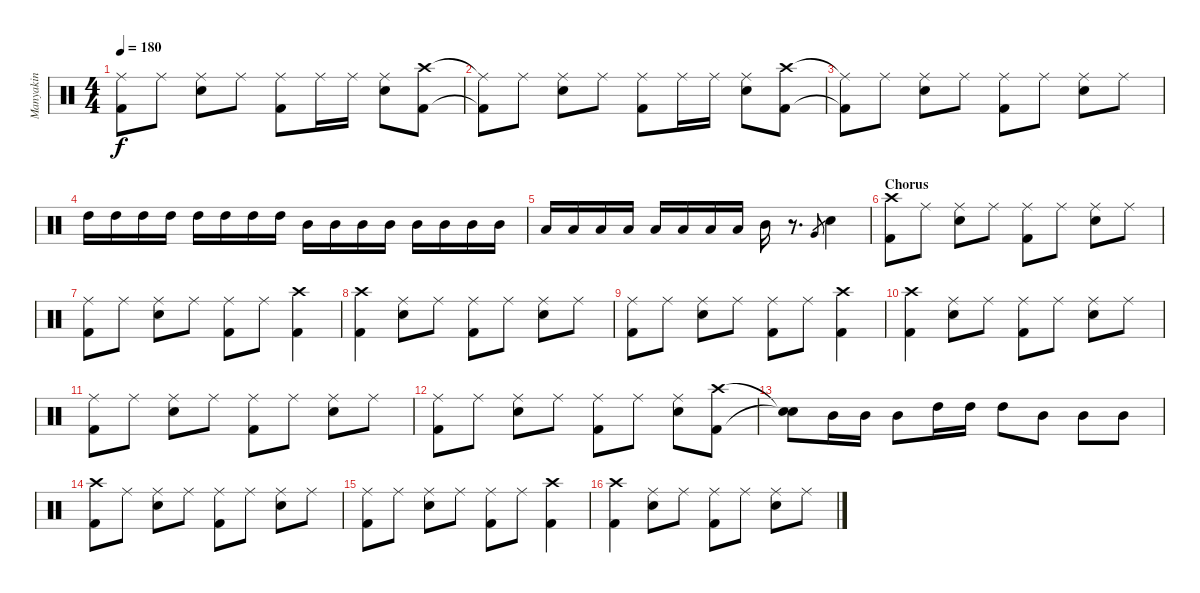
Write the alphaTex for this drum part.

\track ("Manyakin" "Manyakin") {instrument percussion}
\staff {score}
\articulation defaults
\ts (4 4)
\tempo 180
\clef neutral
\ks c
("Kick (hit) 2" "Ride (middle)").8{dy f} "Ride (middle)".8 ("Snare (hit) 2" "Ride (middle)").8 "Ride (middle)".8 ("Kick (hit) 2" "Ride (middle)").8 "Ride (middle)".16 "Ride (middle)".16 ("Snare (hit) 2" "Ride (middle)").8 ("Kick (hit) 2" "Crash high (hit)").8 |
("Kick (hit) 2"{t} "Ride (middle)"{t}).8 "Ride (middle)".8 ("Snare (hit) 2" "Ride (middle)").8 "Ride (middle)".8 ("Kick (hit) 2" "Ride (middle)").8 "Ride (middle)".16 "Ride (middle)".16 ("Snare (hit) 2" "Ride (middle)").8 ("Kick (hit) 2" "Crash high (hit)").8 |
("Kick (hit) 2"{t} "Ride (middle)"{t}).8 "Ride (middle)".8 ("Snare (hit) 2" "Ride (middle)").8 "Ride (middle)".8 ("Kick (hit) 2" "Ride (middle)").8 "Ride (middle)".8 ("Snare (hit) 2" "Ride (middle)").8 "Ride (middle)".8 |
"High Tom (hit)".16 "High Tom (hit)".16 "High Tom (hit)".16 "High Tom (hit)".16 "High Tom (hit)".16 "High Tom (hit)".16 "High Tom (hit)".16 "High Tom (hit)".16 "Mid Tom (hit)".16 "Mid Tom (hit)".16 "Mid Tom (hit)".16 "Mid Tom (hit)".16 "Mid Tom (hit)".16 "Mid Tom (hit)".16 "Mid Tom (hit)".16 "Mid Tom (hit)".16 |
"Low Tom (hit)".16 "Low Tom (hit)".16 "Low Tom (hit)".16 "Low Tom (hit)".16 "Low Tom (hit)".16 "Low Tom (hit)".16 "Low Tom (hit)".16 "Low Tom (hit)".16 "Mid Tom (hit)".16 r.8{d} "Very Low Tom (hit)".8{gr} "Snare (hit) 2".4 |
\section ("" "Chorus")
("Kick (hit) 2" "Crash high (hit)").8 "Ride (middle)".8 ("Snare (hit) 2" "Ride (middle)").8 "Ride (middle)".8 ("Kick (hit) 2" "Ride (middle)").8 "Ride (middle)".8 ("Snare (hit) 2" "Ride (middle)").8 "Ride (middle)".8 |
("Kick (hit) 2" "Ride (middle)").8 "Ride (middle)".8 ("Snare (hit) 2" "Ride (middle)").8 "Ride (middle)".8 ("Kick (hit) 2" "Ride (middle)").8 "Ride (middle)".8 ("Kick (hit) 2" "Crash high (hit)").4 |
("Kick (hit) 2" "Crash high (hit)").4 ("Snare (hit) 2" "Ride (middle)").8 "Ride (middle)".8 ("Kick (hit) 2" "Ride (middle)").8 "Ride (middle)".8 ("Snare (hit) 2" "Ride (middle)").8 "Ride (middle)".8 |
("Kick (hit) 2" "Ride (middle)").8 "Ride (middle)".8 ("Snare (hit) 2" "Ride (middle)").8 "Ride (middle)".8 ("Kick (hit) 2" "Ride (middle)").8 "Ride (middle)".8 ("Kick (hit) 2" "Crash high (hit)").4 |
("Kick (hit) 2" "Crash high (hit)").4 ("Snare (hit) 2" "Ride (middle)").8 "Ride (middle)".8 ("Kick (hit) 2" "Ride (middle)").8 "Ride (middle)".8 ("Snare (hit) 2" "Ride (middle)").8 "Ride (middle)".8 |
("Kick (hit) 2" "Ride (middle)").8 "Ride (middle)".8 ("Snare (hit) 2" "Ride (middle)").8 "Ride (middle)".8 ("Kick (hit) 2" "Ride (middle)").8 "Ride (middle)".8 ("Snare (hit) 2" "Ride (middle)").8 "Ride (middle)".8 |
("Kick (hit) 2" "Ride (middle)").8 "Ride (middle)".8 ("Snare (hit) 2" "Ride (middle)").8 "Ride (middle)".8 ("Kick (hit) 2" "Ride (middle)").8 "Ride (middle)".8 ("Snare (hit) 2" "Ride (middle)").8 ("Kick (hit) 2" "Crash high (hit)").8 |
("Snare (hit)"{t} "Snare (hit)"{t}).8 "Mid Tom (hit)".16 "Mid Tom (hit)".16 "Mid Tom (hit)".8 "High Tom (hit)".16 "High Tom (hit)".16 "High Tom (hit)".8 "Mid Tom (hit)".8 "Mid Tom (hit)".8 "Mid Tom (hit)".8 |
("Kick (hit) 2" "Crash high (hit)").8 "Ride (middle)".8 ("Snare (hit) 2" "Ride (middle)").8 "Ride (middle)".8 ("Kick (hit) 2" "Ride (middle)").8 "Ride (middle)".8 ("Snare (hit) 2" "Ride (middle)").8 "Ride (middle)".8 |
("Kick (hit) 2" "Ride (middle)").8 "Ride (middle)".8 ("Snare (hit) 2" "Ride (middle)").8 "Ride (middle)".8 ("Kick (hit) 2" "Ride (middle)").8 "Ride (middle)".8 ("Kick (hit) 2" "Crash high (hit)").4 |
("Kick (hit) 2" "Crash high (hit)").4 ("Snare (hit) 2" "Ride (middle)").8 "Ride (middle)".8 ("Kick (hit) 2" "Ride (middle)").8 "Ride (middle)".8 ("Snare (hit) 2" "Ride (middle)").8 "Ride (middle)".8
